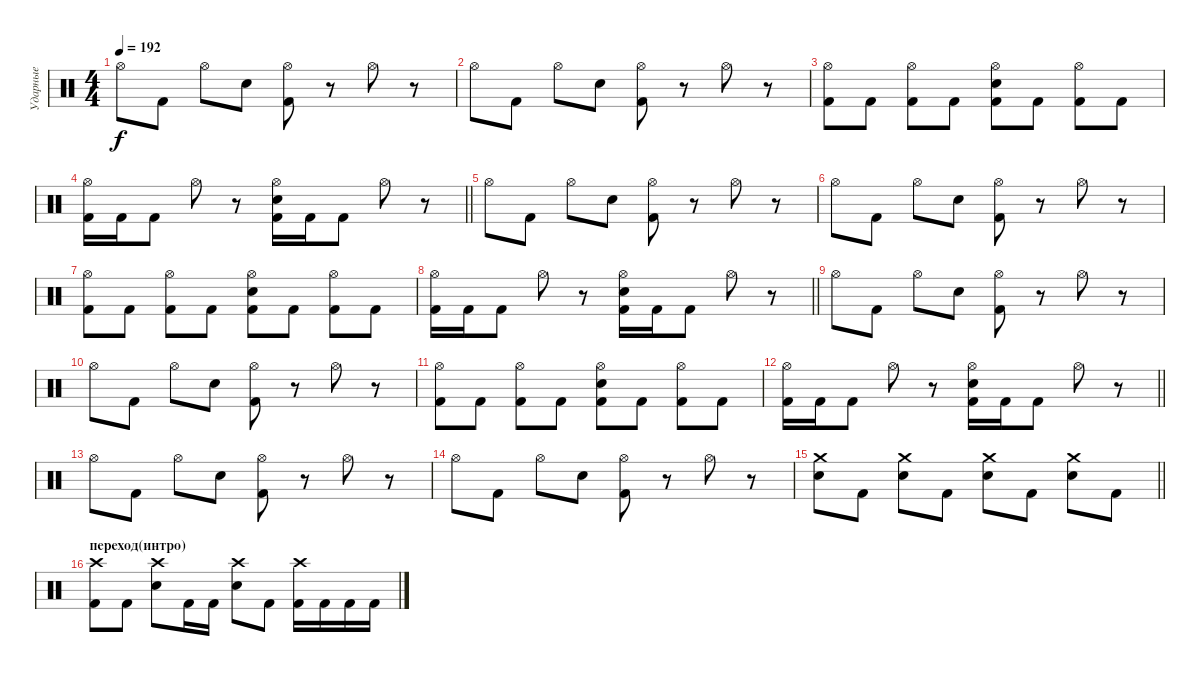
\track ("Ударные" "Ударные") {instrument percussion}
\staff {score}
\articulation defaults
\ts (4 4)
\tempo 192
\clef neutral
\ks c "Hi-Hat (open)".8{dy f} "Kick (hit) 2".8 "Hi-Hat (open)".8 "Electric Snare (hit)".8
("Hi-Hat (open)" "Kick (hit) 2").8 r.8 "Hi-Hat (open)".8 r.8 |
"Hi-Hat (open)".8 "Kick (hit) 2".8 "Hi-Hat (open)".8 "Electric Snare (hit)".8 ("Hi-Hat (open)" "Kick (hit) 2").8 r.8 "Hi-Hat (open)".8 r.8 |
("Hi-Hat (open)" "Kick (hit) 2").8 "Kick (hit) 2".8 ("Hi-Hat (open)" "Kick (hit) 2").8 "Kick (hit) 2".8 ("Hi-Hat (open)" "Electric Snare (hit)" "Kick (hit) 2").8 "Kick (hit) 2".8 ("Hi-Hat (open)" "Kick (hit) 2").8 "Kick (hit) 2".8 |
\barLineRight lightlight
("Hi-Hat (open)" "Kick (hit) 2").16 "Kick (hit) 2".16 "Kick (hit) 2".8 "Hi-Hat (open)".8 r.8 ("Hi-Hat (open)" "Electric Snare (hit)" "Kick (hit) 2").16 "Kick (hit) 2".16 "Kick (hit) 2".8 "Hi-Hat (open)".8 r.8 |
"Hi-Hat (open)".8 "Kick (hit) 2".8 "Hi-Hat (open)".8 "Electric Snare (hit)".8 ("Hi-Hat (open)" "Kick (hit) 2").8 r.8 "Hi-Hat (open)".8 r.8 |
"Hi-Hat (open)".8 "Kick (hit) 2".8 "Hi-Hat (open)".8 "Electric Snare (hit)".8 ("Hi-Hat (open)" "Kick (hit) 2").8 r.8 "Hi-Hat (open)".8 r.8 |
("Hi-Hat (open)" "Kick (hit) 2").8 "Kick (hit) 2".8 ("Hi-Hat (open)" "Kick (hit) 2").8 "Kick (hit) 2".8 ("Hi-Hat (open)" "Electric Snare (hit)" "Kick (hit) 2").8 "Kick (hit) 2".8 ("Hi-Hat (open)" "Kick (hit) 2").8 "Kick (hit) 2".8 |
\barLineRight lightlight
("Hi-Hat (open)" "Kick (hit) 2").16 "Kick (hit) 2".16 "Kick (hit) 2".8 "Hi-Hat (open)".8 r.8 ("Hi-Hat (open)" "Electric Snare (hit)" "Kick (hit) 2").16 "Kick (hit) 2".16 "Kick (hit) 2".8 "Hi-Hat (open)".8 r.8 |
"Hi-Hat (open)".8 "Kick (hit) 2".8 "Hi-Hat (open)".8 "Electric Snare (hit)".8 ("Hi-Hat (open)" "Kick (hit) 2").8 r.8 "Hi-Hat (open)".8 r.8 |
"Hi-Hat (open)".8 "Kick (hit) 2".8 "Hi-Hat (open)".8 "Electric Snare (hit)".8 ("Hi-Hat (open)" "Kick (hit) 2").8 r.8 "Hi-Hat (open)".8 r.8 |
("Hi-Hat (open)" "Kick (hit) 2").8 "Kick (hit) 2".8 ("Hi-Hat (open)" "Kick (hit) 2").8 "Kick (hit) 2".8 ("Hi-Hat (open)" "Electric Snare (hit)" "Kick (hit) 2").8 "Kick (hit) 2".8 ("Hi-Hat (open)" "Kick (hit) 2").8 "Kick (hit) 2".8 |
\barLineRight lightlight
("Hi-Hat (open)" "Kick (hit) 2").16 "Kick (hit) 2".16 "Kick (hit) 2".8 "Hi-Hat (open)".8 r.8 ("Hi-Hat (open)" "Electric Snare (hit)" "Kick (hit) 2").16 "Kick (hit) 2".16 "Kick (hit) 2".8 "Hi-Hat (open)".8 r.8 |
"Hi-Hat (open)".8 "Kick (hit) 2".8 "Hi-Hat (open)".8 "Electric Snare (hit)".8 ("Hi-Hat (open)" "Kick (hit) 2").8 r.8 "Hi-Hat (open)".8 r.8 |
"Hi-Hat (open)".8 "Kick (hit) 2".8 "Hi-Hat (open)".8 "Electric Snare (hit)".8 ("Hi-Hat (open)" "Kick (hit) 2").8 r.8 "Hi-Hat (open)".8 r.8 |
\barLineRight lightlight
("Crash medium (hit)" "Electric Snare (hit)").8 "Kick (hit) 2".8 ("Crash medium (hit)" "Electric Snare (hit)").8 "Kick (hit) 2".8 ("Crash medium (hit)" "Electric Snare (hit)").8 "Kick (hit) 2".8 ("Crash medium (hit)" "Electric Snare (hit)").8 "Kick (hit) 2".8 |
\section ("" "переход(интро)")
("Crash high (hit)" "Kick (hit) 2").8 "Kick (hit) 2".8 ("Crash high (hit)" "Electric Snare (hit)").8 "Kick (hit) 2".16 "Kick (hit) 2".16 ("Crash high (hit)" "Electric Snare (hit)").8 "Kick (hit) 2".8 ("Crash high (hit)" "Kick (hit) 2").16 "Kick (hit) 2".16 "Kick (hit) 2".16 "Kick (hit) 2".16
